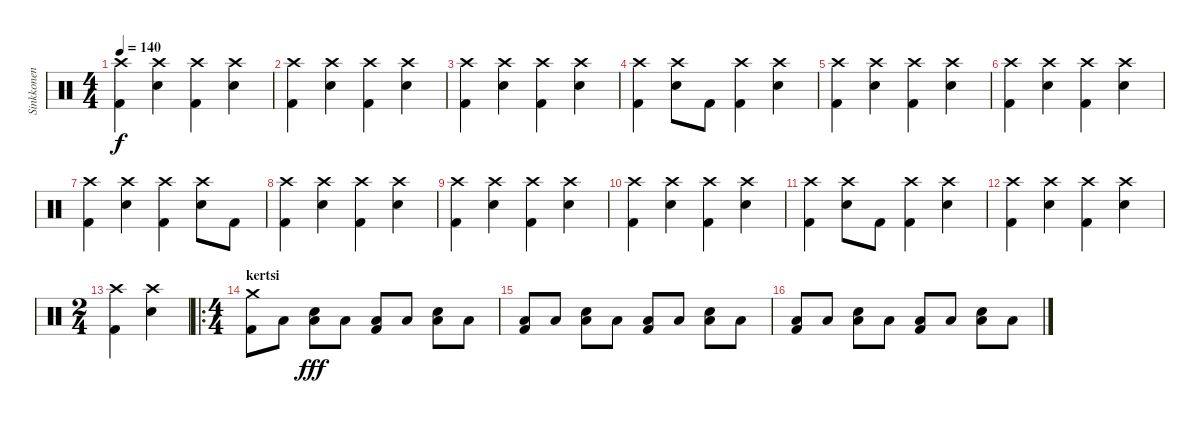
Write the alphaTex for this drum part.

\track ("Sinkkonen" "Sinkkonen") {instrument percussion}
\staff {score}
\articulation defaults
\ts (4 4)
\tempo 140
\clef neutral
\ks c
("Kick (hit) 2" "Crash high (hit)").4{dy f} ("Crash high (hit)" "Snare (hit) 2").4 ("Kick (hit) 2" "Crash high (hit)").4 ("Crash high (hit)" "Snare (hit) 2").4 |
("Kick (hit) 2" "Crash high (hit)").4 ("Crash high (hit)" "Snare (hit) 2").4 ("Kick (hit) 2" "Crash high (hit)").4 ("Crash high (hit)" "Snare (hit) 2").4 |
("Kick (hit) 2" "Crash high (hit)").4 ("Crash high (hit)" "Snare (hit) 2").4 ("Kick (hit) 2" "Crash high (hit)").4 ("Crash high (hit)" "Snare (hit) 2").4 |
("Kick (hit) 2" "Crash high (hit)").4 ("Crash high (hit)" "Snare (hit) 2").8 "Kick (hit) 2".8 ("Kick (hit) 2" "Crash high (hit)").4 ("Crash high (hit)" "Snare (hit) 2").4 |
("Kick (hit) 2" "Crash high (hit)").4 ("Crash high (hit)" "Snare (hit) 2").4 ("Kick (hit) 2" "Crash high (hit)").4 ("Crash high (hit)" "Snare (hit) 2").4 |
("Kick (hit) 2" "Crash high (hit)").4 ("Crash high (hit)" "Snare (hit) 2").4 ("Kick (hit) 2" "Crash high (hit)").4 ("Crash high (hit)" "Snare (hit) 2").4 |
("Kick (hit) 2" "Crash high (hit)").4 ("Crash high (hit)" "Snare (hit) 2").4 ("Kick (hit) 2" "Crash high (hit)").4 ("Crash high (hit)" "Snare (hit) 2").8 "Kick (hit) 2".8 |
("Kick (hit) 2" "Crash high (hit)").4 ("Crash high (hit)" "Snare (hit) 2").4 ("Kick (hit) 2" "Crash high (hit)").4 ("Crash high (hit)" "Snare (hit) 2").4 |
("Kick (hit) 2" "Crash high (hit)").4 ("Crash high (hit)" "Snare (hit) 2").4 ("Kick (hit) 2" "Crash high (hit)").4 ("Crash high (hit)" "Snare (hit) 2").4 |
("Kick (hit) 2" "Crash high (hit)").4 ("Crash high (hit)" "Snare (hit) 2").4 ("Kick (hit) 2" "Crash high (hit)").4 ("Crash high (hit)" "Snare (hit) 2").4 |
("Kick (hit) 2" "Crash high (hit)").4 ("Crash high (hit)" "Snare (hit) 2").8 "Kick (hit) 2".8 ("Kick (hit) 2" "Crash high (hit)").4 ("Crash high (hit)" "Snare (hit) 2").4 |
("Kick (hit) 2" "Crash high (hit)").4 ("Crash high (hit)" "Snare (hit) 2").4 ("Kick (hit) 2" "Crash high (hit)").4 ("Crash high (hit)" "Snare (hit) 2").4 |
\ts (2 4)
("Kick (hit) 2" "Crash high (hit)").4 ("Crash high (hit)" "Snare (hit) 2").4 |
\ro
\ts (4 4)
\section ("" "kertsi")
("Kick (hit) 2" "Crash medium (hit)").8 "Low Floor Tom (hit)".8 ("Low Floor Tom (hit)" "Snare (hit) 2").8{dy fff} "Low Floor Tom (hit)".8 ("Kick (hit) 2" "Low Floor Tom (hit)").8 "Low Floor Tom (hit)".8 ("Low Floor Tom (hit)" "Snare (hit) 2").8 "Low Floor Tom (hit)".8 |
("Kick (hit) 2" "Low Floor Tom (hit)").8 "Low Floor Tom (hit)".8 ("Low Floor Tom (hit)" "Snare (hit) 2").8 "Low Floor Tom (hit)".8 ("Kick (hit) 2" "Low Floor Tom (hit)").8 "Low Floor Tom (hit)".8 ("Low Floor Tom (hit)" "Snare (hit) 2").8 "Low Floor Tom (hit)".8 |
("Kick (hit) 2" "Low Floor Tom (hit)").8 "Low Floor Tom (hit)".8 ("Low Floor Tom (hit)" "Snare (hit) 2").8 "Low Floor Tom (hit)".8 ("Kick (hit) 2" "Low Floor Tom (hit)").8 "Low Floor Tom (hit)".8 ("Low Floor Tom (hit)" "Snare (hit) 2").8 "Low Floor Tom (hit)".8
